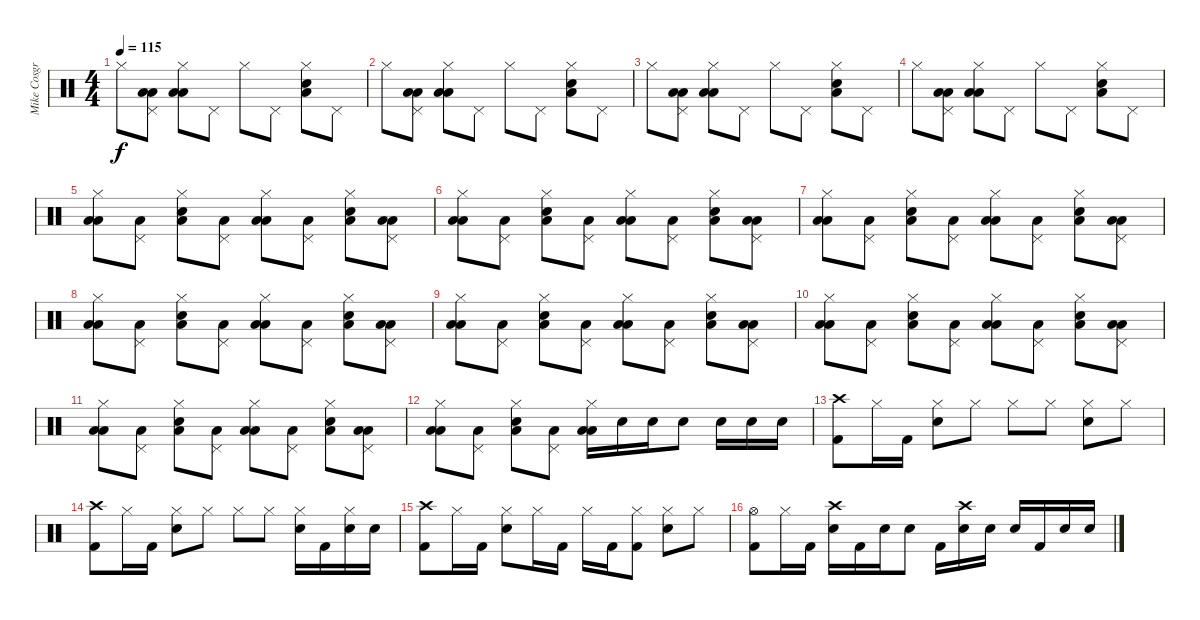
\track ("Mike Cosgrove" "Mike Cosgr") {instrument percussion}
\staff {score}
\articulation defaults
\ts (4 4)
\tempo 115
\clef neutral
\ks c "Hi-Hat (closed)".8{dy f}
("Pedal Hi-Hat (hit)" "Low Tom (hit)" "Low Floor Tom (hit)").8 ("Hi-Hat (closed)" "Low Tom (hit)" "Low Floor Tom (hit)").8 "Pedal Hi-Hat (hit)".8 "Hi-Hat (closed)".8 "Pedal Hi-Hat (hit)".8 ("Hi-Hat (closed)" "Electric Snare (hit)" "Low Floor Tom (hit)").8 "Pedal Hi-Hat (hit)".8 |
"Hi-Hat (closed)".8 ("Pedal Hi-Hat (hit)" "Low Tom (hit)" "Low Floor Tom (hit)").8 ("Hi-Hat (closed)" "Low Tom (hit)" "Low Floor Tom (hit)").8 "Pedal Hi-Hat (hit)".8 "Hi-Hat (closed)".8 "Pedal Hi-Hat (hit)".8 ("Hi-Hat (closed)" "Electric Snare (hit)" "Low Floor Tom (hit)").8 "Pedal Hi-Hat (hit)".8 |
"Hi-Hat (closed)".8 ("Pedal Hi-Hat (hit)" "Low Tom (hit)" "Low Floor Tom (hit)").8 ("Hi-Hat (closed)" "Low Tom (hit)" "Low Floor Tom (hit)").8 "Pedal Hi-Hat (hit)".8 "Hi-Hat (closed)".8 "Pedal Hi-Hat (hit)".8 ("Hi-Hat (closed)" "Electric Snare (hit)" "Low Floor Tom (hit)").8 "Pedal Hi-Hat (hit)".8 |
"Hi-Hat (closed)".8 ("Pedal Hi-Hat (hit)" "Low Tom (hit)" "Low Floor Tom (hit)").8 ("Hi-Hat (closed)" "Low Tom (hit)" "Low Floor Tom (hit)").8 "Pedal Hi-Hat (hit)".8 "Hi-Hat (closed)".8 "Pedal Hi-Hat (hit)".8 ("Hi-Hat (closed)" "Electric Snare (hit)" "Low Floor Tom (hit)").8 "Pedal Hi-Hat (hit)".8 |
("Hi-Hat (closed)" "Low Tom (hit)" "Low Floor Tom (hit)").8 ("Pedal Hi-Hat (hit)" "Low Floor Tom (hit)").8 ("Hi-Hat (closed)" "Electric Snare (hit)" "Low Floor Tom (hit)").8 ("Pedal Hi-Hat (hit)" "Low Floor Tom (hit)").8 ("Hi-Hat (closed)" "Low Tom (hit)" "Low Floor Tom (hit)").8 ("Pedal Hi-Hat (hit)" "Low Floor Tom (hit)").8 ("Hi-Hat (closed)" "Electric Snare (hit)" "Low Floor Tom (hit)").8 ("Pedal Hi-Hat (hit)" "Low Tom (hit)" "Low Floor Tom (hit)").8 |
("Hi-Hat (closed)" "Low Tom (hit)" "Low Floor Tom (hit)").8 ("Pedal Hi-Hat (hit)" "Low Floor Tom (hit)").8 ("Hi-Hat (closed)" "Electric Snare (hit)" "Low Floor Tom (hit)").8 ("Pedal Hi-Hat (hit)" "Low Floor Tom (hit)").8 ("Hi-Hat (closed)" "Low Tom (hit)" "Low Floor Tom (hit)").8 ("Pedal Hi-Hat (hit)" "Low Floor Tom (hit)").8 ("Hi-Hat (closed)" "Electric Snare (hit)" "Low Floor Tom (hit)").8 ("Pedal Hi-Hat (hit)" "Low Tom (hit)" "Low Floor Tom (hit)").8 |
("Hi-Hat (closed)" "Low Tom (hit)" "Low Floor Tom (hit)").8 ("Pedal Hi-Hat (hit)" "Low Floor Tom (hit)").8 ("Hi-Hat (closed)" "Electric Snare (hit)" "Low Floor Tom (hit)").8 ("Pedal Hi-Hat (hit)" "Low Floor Tom (hit)").8 ("Hi-Hat (closed)" "Low Tom (hit)" "Low Floor Tom (hit)").8 ("Pedal Hi-Hat (hit)" "Low Floor Tom (hit)").8 ("Hi-Hat (closed)" "Electric Snare (hit)" "Low Floor Tom (hit)").8 ("Pedal Hi-Hat (hit)" "Low Tom (hit)" "Low Floor Tom (hit)").8 |
("Hi-Hat (closed)" "Low Tom (hit)" "Low Floor Tom (hit)").8 ("Pedal Hi-Hat (hit)" "Low Floor Tom (hit)").8 ("Hi-Hat (closed)" "Electric Snare (hit)" "Low Floor Tom (hit)").8 ("Pedal Hi-Hat (hit)" "Low Floor Tom (hit)").8 ("Hi-Hat (closed)" "Low Tom (hit)" "Low Floor Tom (hit)").8 ("Pedal Hi-Hat (hit)" "Low Floor Tom (hit)").8 ("Hi-Hat (closed)" "Electric Snare (hit)" "Low Floor Tom (hit)").8 ("Pedal Hi-Hat (hit)" "Low Tom (hit)" "Low Floor Tom (hit)").8 |
("Hi-Hat (closed)" "Low Tom (hit)" "Low Floor Tom (hit)").8 ("Pedal Hi-Hat (hit)" "Low Floor Tom (hit)").8 ("Hi-Hat (closed)" "Electric Snare (hit)" "Low Floor Tom (hit)").8 ("Pedal Hi-Hat (hit)" "Low Floor Tom (hit)").8 ("Hi-Hat (closed)" "Low Tom (hit)" "Low Floor Tom (hit)").8 ("Pedal Hi-Hat (hit)" "Low Floor Tom (hit)").8 ("Hi-Hat (closed)" "Electric Snare (hit)" "Low Floor Tom (hit)").8 ("Pedal Hi-Hat (hit)" "Low Tom (hit)" "Low Floor Tom (hit)").8 |
("Hi-Hat (closed)" "Low Tom (hit)" "Low Floor Tom (hit)").8 ("Pedal Hi-Hat (hit)" "Low Floor Tom (hit)").8 ("Hi-Hat (closed)" "Electric Snare (hit)" "Low Floor Tom (hit)").8 ("Pedal Hi-Hat (hit)" "Low Floor Tom (hit)").8 ("Hi-Hat (closed)" "Low Tom (hit)" "Low Floor Tom (hit)").8 ("Pedal Hi-Hat (hit)" "Low Floor Tom (hit)").8 ("Hi-Hat (closed)" "Electric Snare (hit)" "Low Floor Tom (hit)").8 ("Pedal Hi-Hat (hit)" "Low Tom (hit)" "Low Floor Tom (hit)").8 |
("Hi-Hat (closed)" "Low Tom (hit)" "Low Floor Tom (hit)").8 ("Pedal Hi-Hat (hit)" "Low Floor Tom (hit)").8 ("Hi-Hat (closed)" "Electric Snare (hit)" "Low Floor Tom (hit)").8 ("Pedal Hi-Hat (hit)" "Low Floor Tom (hit)").8 ("Hi-Hat (closed)" "Low Tom (hit)" "Low Floor Tom (hit)").8 ("Pedal Hi-Hat (hit)" "Low Floor Tom (hit)").8 ("Hi-Hat (closed)" "Electric Snare (hit)" "Low Floor Tom (hit)").8 ("Pedal Hi-Hat (hit)" "Low Tom (hit)" "Low Floor Tom (hit)").8 |
("Hi-Hat (closed)" "Low Tom (hit)" "Low Floor Tom (hit)").8 ("Pedal Hi-Hat (hit)" "Low Floor Tom (hit)").8 ("Hi-Hat (closed)" "Electric Snare (hit)" "Low Floor Tom (hit)").8 ("Pedal Hi-Hat (hit)" "Low Floor Tom (hit)").8 ("Hi-Hat (closed)" "Low Tom (hit)" "Low Floor Tom (hit)").16 "Electric Snare (hit)".16 "Electric Snare (hit)".16 "Electric Snare (hit)".8 "Electric Snare (hit)".16 "Electric Snare (hit)".16 "Electric Snare (hit)".16 |
("Crash high (hit)" "Kick (hit) 2").8 "Hi-Hat (closed)".16 "Kick (hit) 2".16 ("Hi-Hat (closed)" "Electric Snare (hit)").8 "Hi-Hat (closed)".8 "Hi-Hat (closed)".8 "Hi-Hat (closed)".8 ("Hi-Hat (closed)" "Electric Snare (hit)").8 "Hi-Hat (closed)".8 |
("Crash high (hit)" "Kick (hit) 2").8 "Hi-Hat (closed)".16 "Kick (hit) 2".16 ("Hi-Hat (closed)" "Electric Snare (hit)").8 "Hi-Hat (closed)".8 "Hi-Hat (closed)".8 "Hi-Hat (closed)".8 ("Hi-Hat (closed)" "Electric Snare (hit)").16 "Kick (hit) 2".16 ("Hi-Hat (closed)" "Electric Snare (hit)").16 "Electric Snare (hit)".16 |
("Crash high (hit)" "Kick (hit) 2").8 "Hi-Hat (closed)".16 "Kick (hit) 2".16 ("Hi-Hat (closed)" "Electric Snare (hit)").8 "Hi-Hat (closed)".16 "Kick (hit) 2".16 "Hi-Hat (closed)".16 "Kick (hit) 2".16 ("Hi-Hat (closed)" "Kick (hit) 2").8 ("Hi-Hat (closed)" "Electric Snare (hit)").8 "Hi-Hat (closed)".8 |
("Hi-Hat (open)" "Kick (hit) 2").8 "Hi-Hat (closed)".16 "Kick (hit) 2".16 ("Crash high (hit)" "Electric Snare (hit)").16 "Kick (hit) 2".16 "Electric Snare (hit)".16 "Electric Snare (hit)".8 "Kick (hit) 2".16 ("Crash high (hit)" "Electric Snare (hit)").16 "Electric Snare (hit)".16 "Electric Snare (hit)".16 "Kick (hit) 2".16 "Electric Snare (hit)".16 "Electric Snare (hit)".16
